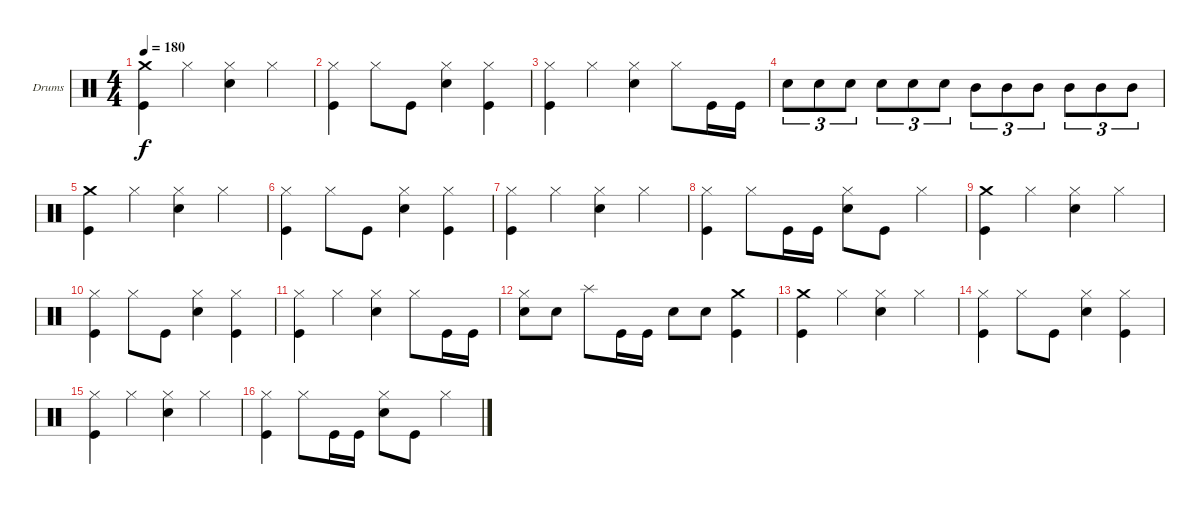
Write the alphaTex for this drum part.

\bracketExtendMode groupsimilarinstruments
\firstSystemTrackNameOrientation horizontal
\otherSystemsTrackNameOrientation horizontal
\track ("Drumkit" "Drums") {instrument percussion}
\staff {score}
\articulation defaults
\ts (4 4)
\tempo 180
\clef neutral
\ks c
("Crash medium (hit)" "Kick (hit)").4{dy f} "Hi-Hat (closed)".4 ("Hi-Hat (closed)" "Snare (hit) 2").4 "Hi-Hat (closed)".4 |
("Hi-Hat (closed)" "Kick (hit)").4 "Hi-Hat (closed)".8 "Kick (hit)".8 ("Hi-Hat (closed)" "Snare (hit) 2").4 ("Hi-Hat (closed)" "Kick (hit)").4 |
("Hi-Hat (closed)" "Kick (hit)").4 "Hi-Hat (closed)".4 ("Hi-Hat (closed)" "Snare (hit) 2").4 "Hi-Hat (closed)".8 "Kick (hit)".16 "Kick (hit)".16 |
"Snare (hit) 2".8{tu (3 2)} "Snare (hit) 2".8{tu (3 2)} "Snare (hit) 2".8{tu (3 2)} "Snare (hit) 2".8{tu (3 2)} "Snare (hit) 2".8{tu (3 2)} "Snare (hit) 2".8{tu (3 2)} "Mid Tom (hit)".8{tu (3 2)} "Mid Tom (hit)".8{tu (3 2)} "Mid Tom (hit)".8{tu (3 2)} "Mid Tom (hit)".8{tu (3 2)} "Mid Tom (hit)".8{tu (3 2)} "Mid Tom (hit)".8{tu (3 2)} |
("Crash medium (hit)" "Kick (hit)").4 "Hi-Hat (closed)".4 ("Hi-Hat (closed)" "Snare (hit) 2").4 "Hi-Hat (closed)".4 |
("Hi-Hat (closed)" "Kick (hit)").4 "Hi-Hat (closed)".8 "Kick (hit)".8 ("Hi-Hat (closed)" "Snare (hit) 2").4 ("Hi-Hat (closed)" "Kick (hit)").4 |
("Hi-Hat (closed)" "Kick (hit)").4 "Hi-Hat (closed)".4 ("Hi-Hat (closed)" "Snare (hit) 2").4 "Hi-Hat (closed)".4 |
("Hi-Hat (closed)" "Kick (hit)").4 "Hi-Hat (closed)".8 "Kick (hit)".16 "Kick (hit)".16 ("Hi-Hat (closed)" "Snare (hit) 2").8 "Kick (hit)".8 "Hi-Hat (closed)".4 |
("Crash medium (hit)" "Kick (hit)").4 "Hi-Hat (closed)".4 ("Hi-Hat (closed)" "Snare (hit) 2").4 "Hi-Hat (closed)".4 |
("Hi-Hat (closed)" "Kick (hit)").4 "Hi-Hat (closed)".8 "Kick (hit)".8 ("Hi-Hat (closed)" "Snare (hit) 2").4 ("Hi-Hat (closed)" "Kick (hit)").4 |
("Hi-Hat (closed)" "Kick (hit)").4 "Hi-Hat (closed)".4 ("Hi-Hat (closed)" "Snare (hit) 2").4 "Hi-Hat (closed)".8 "Kick (hit)".16 "Kick (hit)".16 |
("Hi-Hat (closed)" "Snare (hit) 2").8 "Snare (hit) 2".8 "Splash (hit)".8 "Kick (hit)".16 "Kick (hit)".16 "Snare (hit) 2".8 "Snare (hit) 2".8 ("Crash medium (hit)" "Kick (hit)").4 |
("Crash medium (hit)" "Kick (hit)").4 "Hi-Hat (closed)".4 ("Hi-Hat (closed)" "Snare (hit) 2").4 "Hi-Hat (closed)".4 |
("Hi-Hat (closed)" "Kick (hit)").4 "Hi-Hat (closed)".8 "Kick (hit)".8 ("Hi-Hat (closed)" "Snare (hit) 2").4 ("Hi-Hat (closed)" "Kick (hit)").4 |
("Hi-Hat (closed)" "Kick (hit)").4 "Hi-Hat (closed)".4 ("Hi-Hat (closed)" "Snare (hit) 2").4 "Hi-Hat (closed)".4 |
("Hi-Hat (closed)" "Kick (hit)").4 "Hi-Hat (closed)".8 "Kick (hit)".16 "Kick (hit)".16 ("Hi-Hat (closed)" "Snare (hit) 2").8 "Kick (hit)".8 "Hi-Hat (closed)".4
